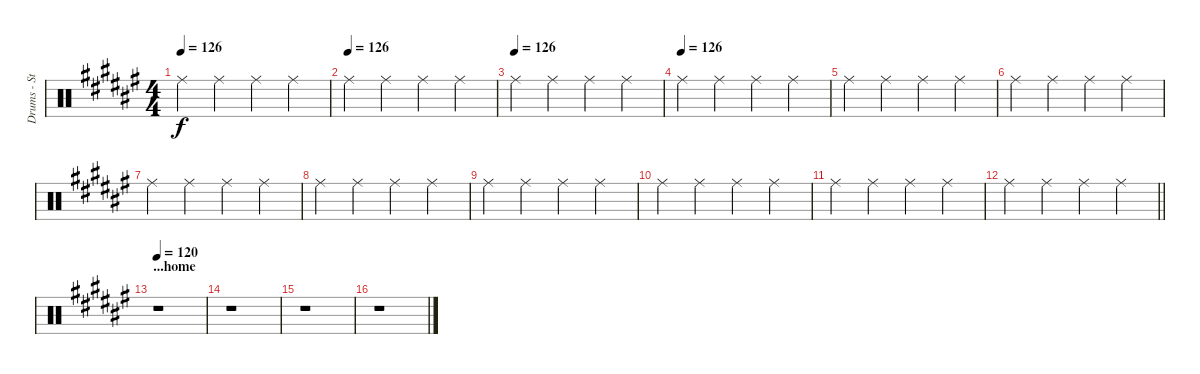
\track ("Drums - Stef Broks" "Drums - St") {instrument percussion}
\staff {score}
\articulation defaults
\ts (4 4)
\tempo 126
\clef neutral
\ks d#minor "Ride (middle)".4{dy f} "Ride (middle)".4 "Ride (middle)".4 "Ride (middle)".4
|
\tempo (126)
"Ride (middle)".4 "Ride (middle)".4 "Ride (middle)".4 "Ride (middle)".4 |
\tempo (126)
"Ride (middle)".4 "Ride (middle)".4 "Ride (middle)".4 "Ride (middle)".4 |
\tempo (126)
"Ride (middle)".4 "Ride (middle)".4 "Ride (middle)".4 "Ride (middle)".4 |
"Ride (middle)".4 "Ride (middle)".4 "Ride (middle)".4 "Ride (middle)".4 |
"Ride (middle)".4 "Ride (middle)".4 "Ride (middle)".4 "Ride (middle)".4 |
"Ride (middle)".4 "Ride (middle)".4 "Ride (middle)".4 "Ride (middle)".4 |
"Ride (middle)".4 "Ride (middle)".4 "Ride (middle)".4 "Ride (middle)".4 |
"Ride (middle)".4 "Ride (middle)".4 "Ride (middle)".4 "Ride (middle)".4 |
"Ride (middle)".4 "Ride (middle)".4 "Ride (middle)".4 "Ride (middle)".4 |
"Ride (middle)".4 "Ride (middle)".4 "Ride (middle)".4 "Ride (middle)".4 |
\barLineRight lightlight "Ride (middle)".4 "Ride (middle)".4 "Ride (middle)".4 "Ride (middle)".4
|
\section ("" "...home")
\tempo 120
r.1 |
r.1 |
r.1 |
r.1
